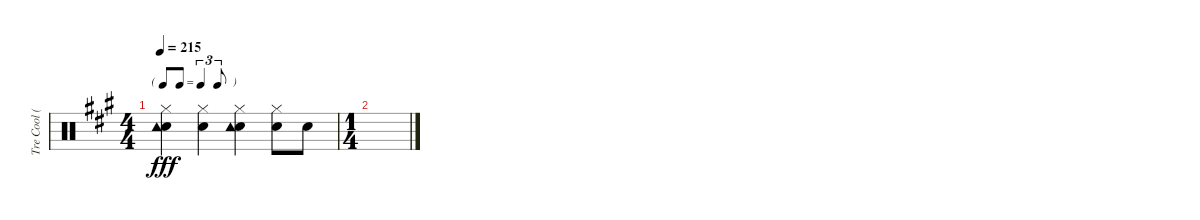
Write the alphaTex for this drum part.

\track ("Tre Cool (Drums)" "Tre Cool (") {instrument percussion}
\staff {score}
\articulation defaults
\ts (4 4)
\tf triplet8th
\tempo 215
\clef neutral
\ks a
("Hi-Hat (closed)" "Electric Snare (hit)" "Tambourine (hit)").4{dy fff} ("Hi-Hat (closed)" "Electric Snare (hit)").4 ("Hi-Hat (closed)" "Electric Snare (hit)" "Tambourine (hit)").4 ("Hi-Hat (closed)" "Electric Snare (hit)").8 "Electric Snare (hit)".8 |
\ts (1 4)
